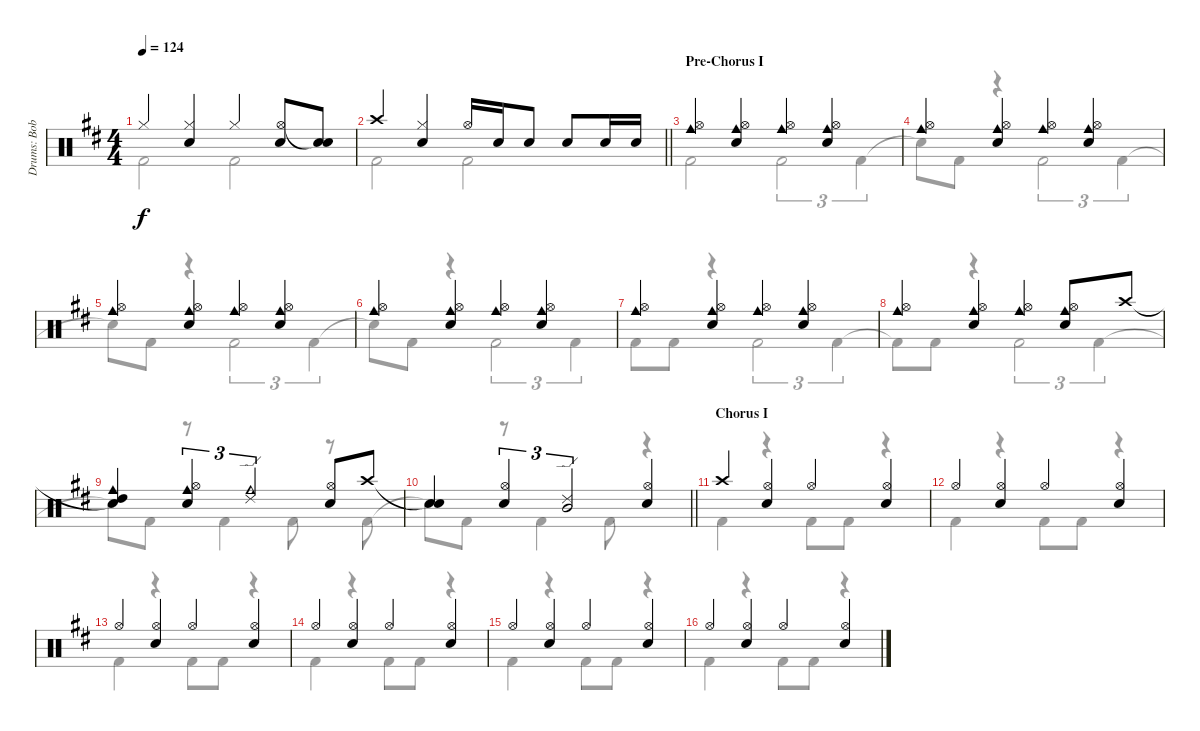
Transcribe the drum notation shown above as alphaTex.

\track ("Drums: Bobby" "Drums: Bob") {instrument percussion}
\staff {score}
\articulation defaults
\voice
\ts (4 4)
\tempo 124
\clef neutral
\ks d "Hi-Hat (closed)".4{dy f}
("Hi-Hat (closed)" "Snare (hit) 2").4 "Hi-Hat (closed)".4 ("Hi-Hat (open)" "Snare (hit) 2").8 ("Snare (hit)"{t} "Snare (hit) 2").8 |
\barLineRight lightlight "Crash high (hit)".4
("Hi-Hat (closed)" "Snare (hit) 2").4 "Hi-Hat (open)".16 "Snare (hit) 2".16 "Snare (hit) 2".8 "Snare (hit) 2".8 "Snare (hit) 2".16 "Snare (hit) 2".16 |
\section ("" "Pre-Chorus I")
("Hi-Hat (open)" "Cowbell medium (hit)").4 ("Hi-Hat (open)" "Snare (hit) 2" "Cowbell medium (hit)").4 ("Hi-Hat (open)" "Cowbell medium (hit)").4 ("Hi-Hat (open)" "Snare (hit) 2" "Cowbell medium (hit)").4 |
("Hi-Hat (open)" "Cowbell medium (hit)").4 ("Hi-Hat (open)" "Snare (hit) 2" "Cowbell medium (hit)").4 ("Hi-Hat (open)" "Cowbell medium (hit)").4 ("Hi-Hat (open)" "Snare (hit) 2" "Cowbell medium (hit)").4 |
("Hi-Hat (open)" "Cowbell medium (hit)").4 ("Hi-Hat (open)" "Snare (hit) 2" "Cowbell medium (hit)").4 ("Hi-Hat (open)" "Cowbell medium (hit)").4 ("Hi-Hat (open)" "Snare (hit) 2" "Cowbell medium (hit)").4 |
("Hi-Hat (open)" "Cowbell medium (hit)").4 ("Hi-Hat (open)" "Snare (hit) 2" "Cowbell medium (hit)").4 ("Hi-Hat (open)" "Cowbell medium (hit)").4 ("Hi-Hat (open)" "Snare (hit) 2" "Cowbell medium (hit)").4 |
("Hi-Hat (open)" "Cowbell medium (hit)").4 ("Hi-Hat (open)" "Snare (hit) 2" "Cowbell medium (hit)").4 ("Hi-Hat (open)" "Cowbell medium (hit)").4 ("Hi-Hat (open)" "Snare (hit) 2" "Cowbell medium (hit)").4 |
("Hi-Hat (open)" "Cowbell medium (hit)").4 ("Hi-Hat (open)" "Snare (hit) 2" "Cowbell medium (hit)").4 ("Hi-Hat (open)" "Cowbell medium (hit)").4 ("Hi-Hat (open)" "Snare (hit) 2" "Cowbell medium (hit)").8 "Crash high (hit)".8 |
("Snare (hit)"{t} "High Tom (hit)" "Cowbell medium (hit)").4 ("Hi-Hat (open)" "Snare (hit) 2" "Cowbell medium (hit)").4{tu (3 2)} ("Ride (edge) 2" "Cowbell medium (hit)").2{tu (3 2)} ("Hi-Hat (open)" "Snare (hit) 2").8 "Crash high (hit)".8 |
\barLineRight lightlight
("Snare (hit)"{t} "Snare (hit) 2").4 ("Hi-Hat (open)" "Snare (hit) 2").4{tu (3 2)} ("Ride (edge) 2" "Mid Tom (hit)").2{tu (3 2)} ("Hi-Hat (open)" "Snare (hit) 2").4 |
\section ("" "Chorus I")
"Crash high (hit)".4 ("Hi-Hat (open)" "Snare (hit) 2").4 "Hi-Hat (open)".4 ("Hi-Hat (open)" "Snare (hit) 2").4 |
"Hi-Hat (open)".4 ("Hi-Hat (open)" "Snare (hit) 2").4 "Hi-Hat (open)".4 ("Hi-Hat (open)" "Snare (hit) 2").4 |
"Hi-Hat (open)".4 ("Hi-Hat (open)" "Snare (hit) 2").4 "Hi-Hat (open)".4 ("Hi-Hat (open)" "Snare (hit) 2").4 |
"Hi-Hat (open)".4 ("Hi-Hat (open)" "Snare (hit) 2").4 "Hi-Hat (open)".4 ("Hi-Hat (open)" "Snare (hit) 2").4 |
"Hi-Hat (open)".4 ("Hi-Hat (open)" "Snare (hit) 2").4 "Hi-Hat (open)".4 ("Hi-Hat (open)" "Snare (hit) 2").4 |
"Hi-Hat (open)".4 ("Hi-Hat (open)" "Snare (hit) 2").4 "Hi-Hat (open)".4 ("Hi-Hat (open)" "Snare (hit) 2").4
\voice
\clef neutral
\ottava regular
\simile none
\ks d "Kick (hit) 2".2{dy f} "Kick (hit) 2".2
|
\barLineRight lightlight "Kick (hit) 2".2 "Kick (hit) 2".2
|
"Kick (hit) 2".2 "Kick (hit) 2".2{tu (3 2)} "Kick (hit) 2".4{tu (3 2)} |
"Snare (hit)"{t}.8 "Kick (hit) 2".8 r.4 "Kick (hit) 2".2{tu (3 2)} "Kick (hit) 2".4{tu (3 2)} |
"Snare (hit)"{t}.8 "Kick (hit) 2".8 r.4 "Kick (hit) 2".2{tu (3 2)} "Kick (hit) 2".4{tu (3 2)} |
"Snare (hit)"{t}.8 "Kick (hit) 2".8 r.4 "Kick (hit) 2".2{tu (3 2)} "Kick (hit) 2".4{tu (3 2)} |
"Kick (hit) 2".8 "Kick (hit) 2".8 r.4 "Kick (hit) 2".2{tu (3 2)} "Kick (hit) 2".4{tu (3 2)} |
"Kick (hit) 2"{t}.8 "Kick (hit) 2".8 r.4 "Kick (hit) 2".2{tu (3 2)} "Kick (hit) 2".4{tu (3 2)} |
"Snare (hit)"{t}.8 "Kick (hit) 2".8 r.8 "Kick (hit) 2".4 "Kick (hit) 2".8 r.8 "Kick (hit) 2".8 |
\barLineRight lightlight "Snare (hit)"{t}.8 "Kick (hit) 2".8
r.8 "Kick (hit) 2".4 "Kick (hit) 2".8 r.4 |
"Kick (hit) 2".4 r.4 "Kick (hit) 2".8 "Kick (hit) 2".8 r.4 |
"Kick (hit) 2".4 r.4 "Kick (hit) 2".8 "Kick (hit) 2".8 r.4 |
"Kick (hit) 2".4 r.4 "Kick (hit) 2".8 "Kick (hit) 2".8 r.4 |
"Kick (hit) 2".4 r.4 "Kick (hit) 2".8 "Kick (hit) 2".8 r.4 |
"Kick (hit) 2".4 r.4 "Kick (hit) 2".8 "Kick (hit) 2".8 r.4 |
"Kick (hit) 2".4 r.4 "Kick (hit) 2".8 "Kick (hit) 2".8 r.4
